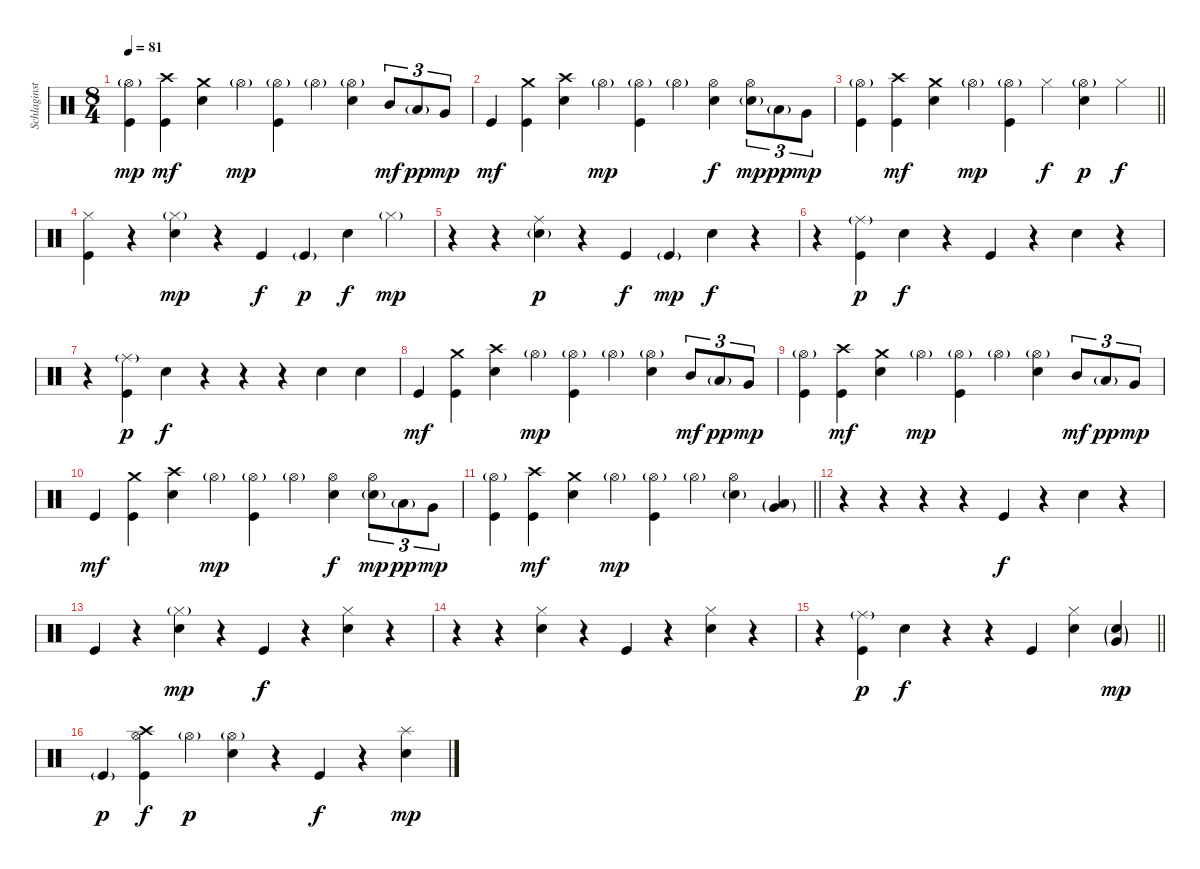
\track ("Schlaginstrumente - Auswahl" "Schlaginst") {instrument percussion}
\staff {score}
\articulation defaults
\ts (8 4)
\tempo 81
\clef neutral
\ks c
("Kick (hit)" "Hi-Hat (open)"{g}).4{dy mp} ("Crash high (hit)" "Kick (hit)").4{dy mf} ("Crash medium (hit)" "Snare (hit) 2").4 "Hi-Hat (open)"{g}.4{dy mp} ("Hi-Hat (open)"{g} "Kick (hit)").4 "Hi-Hat (open)"{g}.4 ("Hi-Hat (open)"{g} "Snare (hit) 2").4 "Mid Tom (hit)".8{tu (3 2) dy mf} "Low Tom (hit)"{g}.8{tu (3 2) dy pp} "Very Low Tom (hit)".8{tu (3 2) dy mp} |
"Kick (hit)".4{dy mf} ("Crash medium (hit)" "Kick (hit)").4 ("Crash high (hit)" "Snare (hit) 2").4 "Hi-Hat (open)"{g}.4{dy mp} ("Hi-Hat (open)"{g} "Kick (hit)").4 "Hi-Hat (open)"{g}.4 ("Hi-Hat (open)" "Snare (hit) 2").4{dy f} ("Hi-Hat (open)" "Snare (hit) 2"{g}).8{tu (3 2) dy mp} "Low Tom (hit)"{g}.8{tu (3 2) dy pp} "Very Low Tom (hit)".8{tu (3 2) dy mp} |
\barLineRight lightlight
("Kick (hit)" "Hi-Hat (open)"{g}).4 ("Crash high (hit)" "Kick (hit)").4{dy mf} ("Crash medium (hit)" "Snare (hit) 2").4 "Hi-Hat (open)"{g}.4{dy mp} ("Hi-Hat (open)"{g} "Kick (hit)").4 "Hi-Hat (closed)".4{dy f} ("Hi-Hat (open)"{g} "Snare (hit) 2").4{dy p} "Hi-Hat (closed)".4{dy f} |
\section ("" "")
("Hi-Hat (closed)" "Kick (hit)").4 r.4 ("Snare (hit) 2" "Hi-Hat (closed)"{g}).4{dy mp} r.4 "Kick (hit)".4{dy f} "Kick (hit)"{g}.4{dy p} "Snare (hit) 2".4{dy f} "Hi-Hat (closed)"{g}.4{dy mp} |
r.4 r.4 ("Snare (hit) 2"{g} "Ride (middle)").4{dy p} r.4 "Kick (hit)".4{dy f} "Kick (hit)"{g}.4{dy mp} "Snare (hit) 2".4{dy f} r.4 |
r.4 ("Kick (hit)" "Ride (middle)"{g}).4{dy p} "Snare (hit) 2".4{dy f} r.4 "Kick (hit)".4 r.4 "Snare (hit) 2".4 r.4 |
r.4 ("Kick (hit)" "Ride (middle)"{g}).4{dy p} "Snare (hit) 2".4{dy f} r.4 r.4 r.4 "Snare (hit) 2".4 "Snare (hit) 2".4 |
"Kick (hit)".4{dy mf} ("Crash medium (hit)" "Kick (hit)").4 ("Crash high (hit)" "Snare (hit) 2").4 "Hi-Hat (open)"{g}.4{dy mp} ("Hi-Hat (open)"{g} "Kick (hit)").4 "Hi-Hat (open)"{g}.4 ("Hi-Hat (open)"{g} "Snare (hit) 2").4 "Mid Tom (hit)".8{tu (3 2) dy mf} "Low Tom (hit)"{g}.8{tu (3 2) dy pp} "Very Low Tom (hit)".8{tu (3 2) dy mp} |
("Kick (hit)" "Hi-Hat (open)"{g}).4 ("Crash high (hit)" "Kick (hit)").4{dy mf} ("Crash medium (hit)" "Snare (hit) 2").4 "Hi-Hat (open)"{g}.4{dy mp} ("Hi-Hat (open)"{g} "Kick (hit)").4 "Hi-Hat (open)"{g}.4 ("Hi-Hat (open)"{g} "Snare (hit) 2").4 "Mid Tom (hit)".8{tu (3 2) dy mf} "Low Tom (hit)"{g}.8{tu (3 2) dy pp} "Very Low Tom (hit)".8{tu (3 2) dy mp} |
"Kick (hit)".4{dy mf} ("Crash medium (hit)" "Kick (hit)").4 ("Crash high (hit)" "Snare (hit) 2").4 "Hi-Hat (open)"{g}.4{dy mp} ("Hi-Hat (open)"{g} "Kick (hit)").4 "Hi-Hat (open)"{g}.4 ("Hi-Hat (open)" "Snare (hit) 2").4{dy f} ("Hi-Hat (open)" "Snare (hit) 2"{g}).8{tu (3 2) dy mp} "Low Tom (hit)"{g}.8{tu (3 2) dy pp} "Very Low Tom (hit)".8{tu (3 2) dy mp} |
\barLineRight lightlight
("Kick (hit)" "Hi-Hat (open)"{g}).4 ("Crash high (hit)" "Kick (hit)").4{dy mf} ("Crash medium (hit)" "Snare (hit) 2").4 "Hi-Hat (open)"{g}.4{dy mp} ("Hi-Hat (open)"{g} "Kick (hit)").4 "Hi-Hat (open)"{g}.4 ("Hi-Hat (open)" "Snare (hit) 2"{g}).4 ("Low Tom (hit)"{g} "Very Low Tom (hit)"{g}).4 |
r.4 r.4 r.4 r.4 "Kick (hit)".4{dy f} r.4 "Snare (hit) 2".4 r.4 |
"Kick (hit)".4 r.4 ("Snare (hit) 2" "Hi-Hat (closed)"{g}).4{dy mp} r.4 "Kick (hit)".4{dy f} r.4 ("Snare (hit) 2" "Hi-Hat (closed)").4 r.4 |
r.4 r.4 ("Snare (hit) 2" "Hi-Hat (closed)").4 r.4 "Kick (hit)".4 r.4 ("Snare (hit) 2" "Hi-Hat (closed)").4 r.4 |
\barLineRight lightlight
r.4 ("Kick (hit)" "Ride (middle)"{g}).4{dy p} "Snare (hit) 2".4{dy f} r.4 r.4 "Kick (hit)".4 ("Snare (hit) 2" "Hi-Hat (closed)").4 ("Snare (hit) 2"{g} "Very Low Tom (hit)"{g}).4{dy mp} |
\section ("" "")
"Kick (hit)"{g}.4{dy p} ("Crash high (hit)" "Hi-Hat (open)" "Kick (hit)").4{dy f} "Hi-Hat (open)"{g}.4{dy p} ("Snare (hit) 2" "Hi-Hat (open)"{g}).4 r.4 "Kick (hit)".4{dy f} r.4 ("Splash (hit)" "Snare (hit) 2").4{dy mp}
